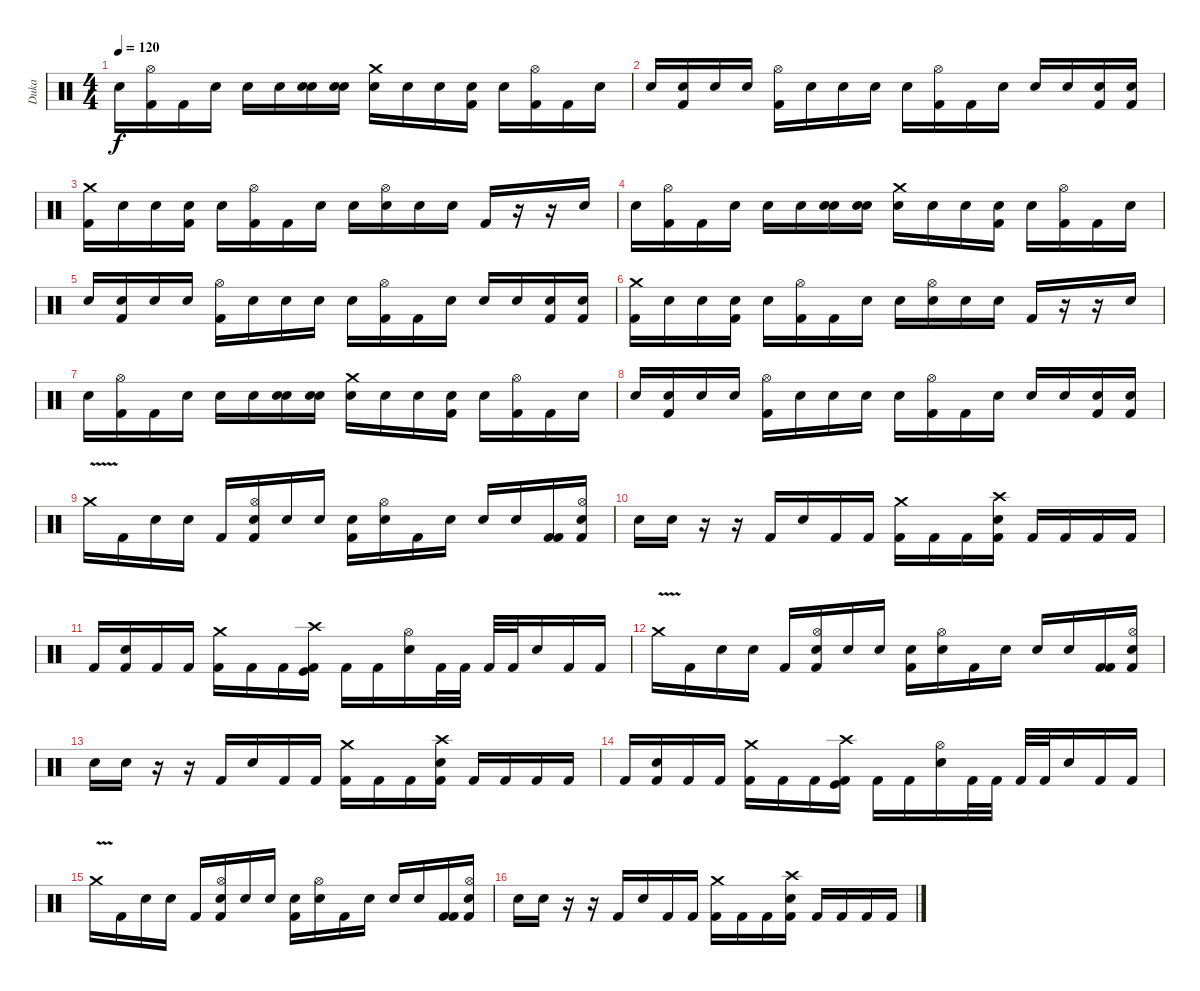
\track ("Duka" "Duka") {instrument percussion}
\staff {score}
\articulation defaults
\ts (4 4)
\tempo 120
\clef neutral
\ks c "Snare (hit)".16{dy f}
("Hi-Hat (open)" "Kick (hit) 2").16 "Kick (hit) 2".16 "Snare (hit)".16 "Snare (hit)".16 "Snare (hit) 2".16 ("Snare (hit) 2" "Snare (hit)").16 ("Snare (hit) 2" "Snare (hit)").16 ("Snare (hit) 2" "Crash medium (hit)").16 "Snare (hit)".16 "Snare (hit)".16 ("Snare (hit) 2" "Kick (hit) 2").16 "Snare (hit)".16 ("Hi-Hat (open)" "Kick (hit) 2").16 "Kick (hit) 2".16 "Snare (hit)".16 |
"Snare (hit)".16 ("Snare (hit) 2" "Kick (hit) 2").16 "Snare (hit)".16 "Snare (hit)".16 ("Kick (hit) 2" "Hi-Hat (open)").16 "Snare (hit)".16 "Snare (hit)".16 "Snare (hit) 2".16 "Snare (hit)".16 ("Hi-Hat (open)" "Kick (hit) 2").16 "Kick (hit) 2".16 "Snare (hit)".16 "Snare (hit)".16 "Snare (hit) 2".16 ("Kick (hit) 2" "Snare (hit)").16 ("Kick (hit) 2" "Snare (hit)").16 |
("Crash medium (hit)" "Kick (hit) 2").16 "Snare (hit)".16 "Snare (hit)".16 ("Snare (hit) 2" "Kick (hit) 2").16 "Snare (hit)".16 ("Hi-Hat (open)" "Kick (hit) 2").16 "Kick (hit) 2".16 "Snare (hit)".16 "Snare (hit)".16 ("Hi-Hat (open)" "Snare (hit) 2").16 "Snare (hit)".16 "Snare (hit)".16 "Kick (hit) 2".16 r.16 r.16 "Snare (hit) 2".16 |
"Snare (hit)".16 ("Hi-Hat (open)" "Kick (hit) 2").16 "Kick (hit) 2".16 "Snare (hit)".16 "Snare (hit)".16 "Snare (hit) 2".16 ("Snare (hit) 2" "Snare (hit)").16 ("Snare (hit) 2" "Snare (hit)").16 ("Snare (hit) 2" "Crash medium (hit)").16 "Snare (hit)".16 "Snare (hit)".16 ("Snare (hit) 2" "Kick (hit) 2").16 "Snare (hit)".16 ("Hi-Hat (open)" "Kick (hit) 2").16 "Kick (hit) 2".16 "Snare (hit)".16 |
"Snare (hit)".16 ("Snare (hit) 2" "Kick (hit) 2").16 "Snare (hit)".16 "Snare (hit)".16 ("Kick (hit) 2" "Hi-Hat (open)").16 "Snare (hit)".16 "Snare (hit)".16 "Snare (hit) 2".16 "Snare (hit)".16 ("Hi-Hat (open)" "Kick (hit) 2").16 "Kick (hit) 2".16 "Snare (hit)".16 "Snare (hit)".16 "Snare (hit) 2".16 ("Kick (hit) 2" "Snare (hit)").16 ("Kick (hit) 2" "Snare (hit)").16 |
("Crash medium (hit)" "Kick (hit) 2").16 "Snare (hit)".16 "Snare (hit)".16 ("Snare (hit) 2" "Kick (hit) 2").16 "Snare (hit)".16 ("Hi-Hat (open)" "Kick (hit) 2").16 "Kick (hit) 2".16 "Snare (hit)".16 "Snare (hit)".16 ("Hi-Hat (open)" "Snare (hit) 2").16 "Snare (hit)".16 "Snare (hit)".16 "Kick (hit) 2".16 r.16 r.16 "Snare (hit) 2".16 |
"Snare (hit)".16 ("Hi-Hat (open)" "Kick (hit) 2").16 "Kick (hit) 2".16 "Snare (hit)".16 "Snare (hit)".16 "Snare (hit) 2".16 ("Snare (hit) 2" "Snare (hit)").16 ("Snare (hit) 2" "Snare (hit)").16 ("Snare (hit) 2" "Crash medium (hit)").16 "Snare (hit)".16 "Snare (hit)".16 ("Snare (hit) 2" "Kick (hit) 2").16 "Snare (hit)".16 ("Hi-Hat (open)" "Kick (hit) 2").16 "Kick (hit) 2".16 "Snare (hit)".16 |
"Snare (hit)".16 ("Snare (hit) 2" "Kick (hit) 2").16 "Snare (hit)".16 "Snare (hit)".16 ("Kick (hit) 2" "Hi-Hat (open)").16 "Snare (hit)".16 "Snare (hit)".16 "Snare (hit) 2".16 "Snare (hit)".16 ("Hi-Hat (open)" "Kick (hit) 2").16 "Kick (hit) 2".16 "Snare (hit)".16 "Snare (hit)".16 "Snare (hit) 2".16 ("Kick (hit) 2" "Snare (hit)").16 ("Kick (hit) 2" "Snare (hit)").16 |
"Crash medium (hit)"{v}.16 "Kick (hit) 2".16 "Snare (hit)".16 "Snare (hit) 2".16 "Kick (hit) 2".16 ("Hi-Hat (open)" "Snare (hit)" "Kick (hit) 2").16 "Snare (hit)".16 "Snare (hit)".16 ("Snare (hit)" "Kick (hit) 2").16 ("Hi-Hat (open)" "Snare (hit) 2").16 "Kick (hit) 2".16 "Snare (hit)".16 "Snare (hit)".16 "Snare (hit)".16 ("Kick (hit) 2" "Kick (hit) 2").16 ("Hi-Hat (open)" "Snare (hit) 2" "Kick (hit) 2").16 |
"Snare (hit)".16 "Snare (hit)".16 r.16 r.16 "Kick (hit) 2".16 "Snare (hit) 2".16 "Kick (hit) 2".16 "Kick (hit) 2".16 ("Kick (hit) 2" "Crash medium (hit)").16 "Kick (hit) 2".16 "Kick (hit) 2".16 ("Crash high (hit)" "Snare (hit) 2" "Kick (hit) 2").16 "Kick (hit) 2".16 "Kick (hit) 2".16 "Kick (hit) 2".16 "Kick (hit) 2".16 |
"Kick (hit) 2".16 ("Snare (hit) 2" "Kick (hit) 2").16 "Kick (hit) 2".16 "Kick (hit) 2".16 ("Crash medium (hit)" "Kick (hit) 2").16 "Kick (hit) 2".16 "Kick (hit) 2".16 ("Crash high (hit)" "Kick (hit)" "Kick (hit) 2").16 "Kick (hit) 2".16 "Kick (hit) 2".16 ("Hi-Hat (open)" "Snare (hit) 2").16 "Kick (hit) 2".32 "Kick (hit) 2".32 "Kick (hit) 2".32 "Kick (hit) 2".32 "Snare (hit) 2".16 "Kick (hit) 2".16 "Kick (hit) 2".16 |
"Crash medium (hit)"{v}.16 "Kick (hit) 2".16 "Snare (hit)".16 "Snare (hit) 2".16 "Kick (hit) 2".16 ("Hi-Hat (open)" "Snare (hit)" "Kick (hit) 2").16 "Snare (hit)".16 "Snare (hit)".16 ("Snare (hit)" "Kick (hit) 2").16 ("Hi-Hat (open)" "Snare (hit) 2").16 "Kick (hit) 2".16 "Snare (hit)".16 "Snare (hit)".16 "Snare (hit)".16 ("Kick (hit) 2" "Kick (hit) 2").16 ("Hi-Hat (open)" "Snare (hit) 2" "Kick (hit) 2").16 |
"Snare (hit)".16 "Snare (hit)".16 r.16 r.16 "Kick (hit) 2".16 "Snare (hit) 2".16 "Kick (hit) 2".16 "Kick (hit) 2".16 ("Kick (hit) 2" "Crash medium (hit)").16 "Kick (hit) 2".16 "Kick (hit) 2".16 ("Crash high (hit)" "Snare (hit) 2" "Kick (hit) 2").16 "Kick (hit) 2".16 "Kick (hit) 2".16 "Kick (hit) 2".16 "Kick (hit) 2".16 |
"Kick (hit) 2".16 ("Snare (hit) 2" "Kick (hit) 2").16 "Kick (hit) 2".16 "Kick (hit) 2".16 ("Crash medium (hit)" "Kick (hit) 2").16 "Kick (hit) 2".16 "Kick (hit) 2".16 ("Crash high (hit)" "Kick (hit)" "Kick (hit) 2").16 "Kick (hit) 2".16 "Kick (hit) 2".16 ("Hi-Hat (open)" "Snare (hit) 2").16 "Kick (hit) 2".32 "Kick (hit) 2".32 "Kick (hit) 2".32 "Kick (hit) 2".32 "Snare (hit) 2".16 "Kick (hit) 2".16 "Kick (hit) 2".16 |
"Crash medium (hit)"{v}.16 "Kick (hit) 2".16 "Snare (hit)".16 "Snare (hit) 2".16 "Kick (hit) 2".16 ("Hi-Hat (open)" "Snare (hit)" "Kick (hit) 2").16 "Snare (hit)".16 "Snare (hit)".16 ("Snare (hit)" "Kick (hit) 2").16 ("Hi-Hat (open)" "Snare (hit) 2").16 "Kick (hit) 2".16 "Snare (hit)".16 "Snare (hit)".16 "Snare (hit)".16 ("Kick (hit) 2" "Kick (hit) 2").16 ("Hi-Hat (open)" "Snare (hit) 2" "Kick (hit) 2").16 |
"Snare (hit)".16 "Snare (hit)".16 r.16 r.16 "Kick (hit) 2".16 "Snare (hit) 2".16 "Kick (hit) 2".16 "Kick (hit) 2".16 ("Kick (hit) 2" "Crash medium (hit)").16 "Kick (hit) 2".16 "Kick (hit) 2".16 ("Crash high (hit)" "Snare (hit) 2" "Kick (hit) 2").16 "Kick (hit) 2".16 "Kick (hit) 2".16 "Kick (hit) 2".16 "Kick (hit) 2".16
